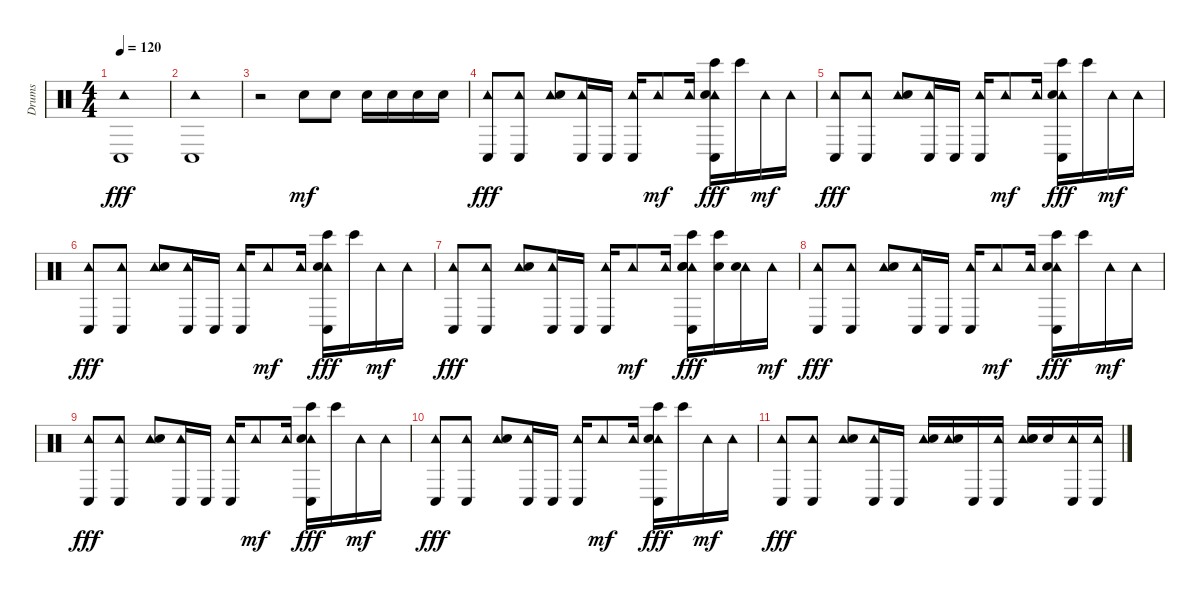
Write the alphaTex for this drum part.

\track ("Drums" "Drums") {instrument percussion}
\staff {score}
\articulation defaults
\ts (4 4)
\tempo 120
\clef neutral
\ks c
("Tambourine (hit)" "Conga low (hit)").1{dy fff} |
("Tambourine (hit)" "Conga low (hit)").1 |
r.2 "Snare (hit) 2".8{dy mf} "Snare (hit) 2".8 "Snare (hit) 2".16 "Snare (hit) 2".16 "Snare (hit) 2".16 "Snare (hit) 2".16 |
("Tambourine (hit)" "Conga low (hit)").8{dy fff} ("Tambourine (hit)" "Conga low (hit)").8 ("Tambourine (hit)" "Hand Clap (hit)").8 ("Tambourine (hit)" "Conga low (hit)").16 "Conga low (hit)".16 ("Tambourine (hit)" "Conga low (hit)").16 "Tambourine (hit)".8{dy mf} "Tambourine (hit)".16 ("Tambourine (hit)" "Bongo High (hit)" "Hand Clap (hit)" "Conga low (hit)").16{dy fff} "Bongo High (hit)".16 "Tambourine (hit)".16{dy mf} "Tambourine (hit)".16 |
("Tambourine (hit)" "Conga low (hit)").8{dy fff} ("Tambourine (hit)" "Conga low (hit)").8 ("Tambourine (hit)" "Hand Clap (hit)").8 ("Tambourine (hit)" "Conga low (hit)").16 "Conga low (hit)".16 ("Tambourine (hit)" "Conga low (hit)").16 "Tambourine (hit)".8{dy mf} "Tambourine (hit)".16 ("Tambourine (hit)" "Bongo High (hit)" "Hand Clap (hit)" "Conga low (hit)").16{dy fff} "Bongo High (hit)".16 "Tambourine (hit)".16{dy mf} "Tambourine (hit)".16 |
("Tambourine (hit)" "Conga low (hit)").8{dy fff} ("Tambourine (hit)" "Conga low (hit)").8 ("Tambourine (hit)" "Hand Clap (hit)").8 ("Tambourine (hit)" "Conga low (hit)").16 "Conga low (hit)".16 ("Tambourine (hit)" "Conga low (hit)").16 "Tambourine (hit)".8{dy mf} "Tambourine (hit)".16 ("Tambourine (hit)" "Bongo High (hit)" "Hand Clap (hit)" "Conga low (hit)").16{dy fff} "Bongo High (hit)".16 "Tambourine (hit)".16{dy mf} "Tambourine (hit)".16 |
("Tambourine (hit)" "Conga low (hit)").8{dy fff} ("Tambourine (hit)" "Conga low (hit)").8 ("Tambourine (hit)" "Hand Clap (hit)").8 ("Tambourine (hit)" "Conga low (hit)").16 "Conga low (hit)".16 ("Tambourine (hit)" "Conga low (hit)").16 "Tambourine (hit)".8{dy mf} "Tambourine (hit)".16 ("Tambourine (hit)" "Snare (hit) 2" "Bongo High (hit)" "Hand Clap (hit)" "Conga low (hit)").16{dy fff} ("Snare (hit) 2" "Bongo High (hit)").16 ("Tambourine (hit)" "Snare (hit) 2").16 "Tambourine (hit)".16{dy mf} |
("Tambourine (hit)" "Conga low (hit)").8{dy fff} ("Tambourine (hit)" "Conga low (hit)").8 ("Tambourine (hit)" "Hand Clap (hit)").8 ("Tambourine (hit)" "Conga low (hit)").16 "Conga low (hit)".16 ("Tambourine (hit)" "Conga low (hit)").16 "Tambourine (hit)".8{dy mf} "Tambourine (hit)".16 ("Tambourine (hit)" "Bongo High (hit)" "Hand Clap (hit)" "Conga low (hit)").16{dy fff} "Bongo High (hit)".16 "Tambourine (hit)".16{dy mf} "Tambourine (hit)".16 |
("Tambourine (hit)" "Conga low (hit)").8{dy fff} ("Tambourine (hit)" "Conga low (hit)").8 ("Tambourine (hit)" "Hand Clap (hit)").8 ("Tambourine (hit)" "Conga low (hit)").16 "Conga low (hit)".16 ("Tambourine (hit)" "Conga low (hit)").16 "Tambourine (hit)".8{dy mf} "Tambourine (hit)".16 ("Tambourine (hit)" "Bongo High (hit)" "Hand Clap (hit)" "Conga low (hit)").16{dy fff} "Bongo High (hit)".16 "Tambourine (hit)".16{dy mf} "Tambourine (hit)".16 |
("Tambourine (hit)" "Conga low (hit)").8{dy fff} ("Tambourine (hit)" "Conga low (hit)").8 ("Tambourine (hit)" "Hand Clap (hit)").8 ("Tambourine (hit)" "Conga low (hit)").16 "Conga low (hit)".16 ("Tambourine (hit)" "Conga low (hit)").16 "Tambourine (hit)".8{dy mf} "Tambourine (hit)".16 ("Tambourine (hit)" "Bongo High (hit)" "Hand Clap (hit)" "Conga low (hit)").16{dy fff} "Bongo High (hit)".16 "Tambourine (hit)".16{dy mf} "Tambourine (hit)".16 |
("Tambourine (hit)" "Conga low (hit)").8{dy fff} ("Tambourine (hit)" "Conga low (hit)").8 ("Tambourine (hit)" "Hand Clap (hit)").8 ("Tambourine (hit)" "Conga low (hit)").16 "Conga low (hit)".16 ("Tambourine (hit)" "Snare (hit) 2").16 ("Tambourine (hit)" "Snare (hit) 2").16 "Conga low (hit)".16 ("Tambourine (hit)" "Conga low (hit)").16 ("Tambourine (hit)" "Snare (hit) 2" "Hand Clap (hit)").16 "Snare (hit) 2".16 ("Tambourine (hit)" "Conga low (hit)").16 ("Tambourine (hit)" "Conga low (hit)").16
